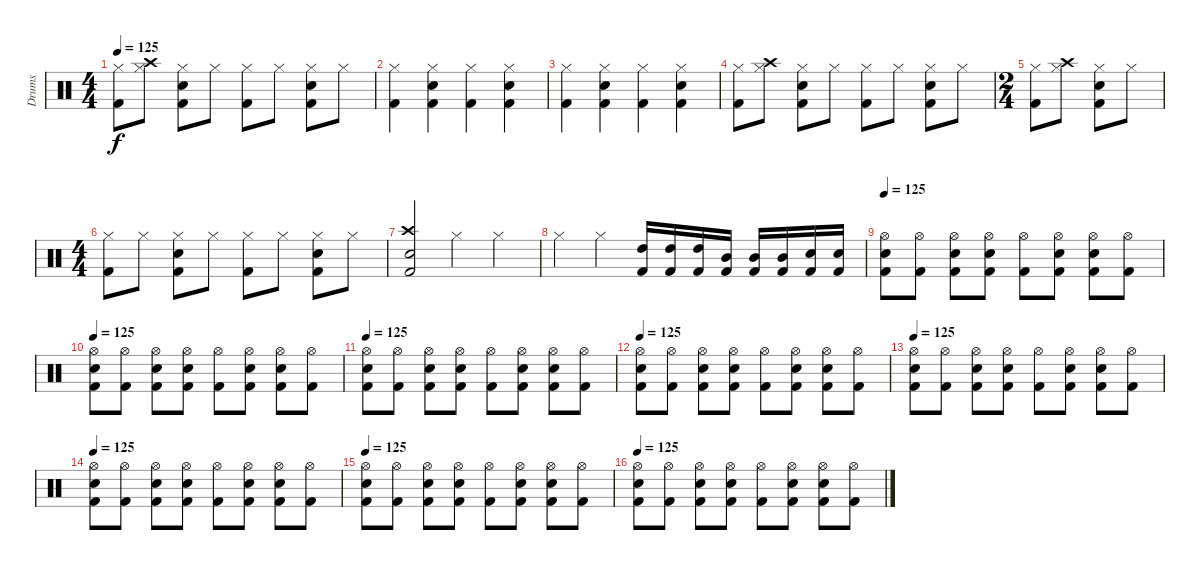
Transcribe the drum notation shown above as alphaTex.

\track ("Drums" "Drums") {instrument percussion}
\staff {score}
\articulation defaults
\ts (4 4)
\tempo 125
\clef neutral
\ks c
("Hi-Hat (closed)" "Kick (hit) 2").8{dy f} ("Hi-Hat (closed)" "Crash high (hit)").8 ("Hi-Hat (closed)" "Electric Snare (hit)" "Kick (hit) 2").8 "Hi-Hat (closed)".8 ("Hi-Hat (closed)" "Kick (hit) 2").8 "Hi-Hat (closed)".8 ("Hi-Hat (closed)" "Electric Snare (hit)" "Kick (hit) 2").8 "Hi-Hat (closed)".8 |
("Kick (hit) 2" "Hi-Hat (closed)").4 ("Kick (hit) 2" "Electric Snare (hit)" "Hi-Hat (closed)").4 ("Kick (hit) 2" "Hi-Hat (closed)").4 ("Kick (hit) 2" "Electric Snare (hit)" "Hi-Hat (closed)").4 |
("Kick (hit) 2" "Hi-Hat (closed)").4 ("Kick (hit) 2" "Electric Snare (hit)" "Hi-Hat (closed)").4 ("Kick (hit) 2" "Hi-Hat (closed)").4 ("Kick (hit) 2" "Electric Snare (hit)" "Hi-Hat (closed)").4 |
("Hi-Hat (closed)" "Kick (hit) 2").8 ("Hi-Hat (closed)" "Crash high (hit)").8 ("Hi-Hat (closed)" "Electric Snare (hit)" "Kick (hit) 2").8 "Hi-Hat (closed)".8 ("Hi-Hat (closed)" "Kick (hit) 2").8 "Hi-Hat (closed)".8 ("Hi-Hat (closed)" "Electric Snare (hit)" "Kick (hit) 2").8 "Hi-Hat (closed)".8 |
\ts (2 4)
("Hi-Hat (closed)" "Kick (hit) 2").8 ("Hi-Hat (closed)" "Crash high (hit)").8 ("Hi-Hat (closed)" "Electric Snare (hit)" "Kick (hit) 2").8 "Hi-Hat (closed)".8 |
\ts (4 4)
("Hi-Hat (closed)" "Kick (hit) 2").8 "Hi-Hat (closed)".8 ("Hi-Hat (closed)" "Electric Snare (hit)" "Kick (hit) 2").8 "Hi-Hat (closed)".8 ("Hi-Hat (closed)" "Kick (hit) 2").8 "Hi-Hat (closed)".8 ("Hi-Hat (closed)" "Electric Snare (hit)" "Kick (hit) 2").8 "Hi-Hat (closed)".8 |
("Crash high (hit)" "Kick (hit) 2" "Electric Snare (hit)").2 "Hi-Hat (closed)".4 "Hi-Hat (closed)".4 |
"Hi-Hat (closed)".4 "Hi-Hat (closed)".4 ("High Tom (hit)" "Kick (hit) 2").16 ("High Tom (hit)" "Kick (hit) 2").16 ("High Tom (hit)" "Kick (hit) 2").16 ("Mid Tom (hit)" "Kick (hit) 2").16 ("Mid Tom (hit)" "Kick (hit) 2").16 ("Mid Tom (hit)" "Kick (hit) 2").16 ("Electric Snare (hit)" "Kick (hit) 2").16 ("Electric Snare (hit)" "Kick (hit) 2").16 |
\tempo 125
("Hi-Hat (open)" "Kick (hit) 2" "Electric Snare (hit)").8 ("Hi-Hat (open)" "Kick (hit) 2").8 ("Hi-Hat (open)" "Kick (hit) 2" "Electric Snare (hit)").8 ("Hi-Hat (open)" "Kick (hit) 2" "Electric Snare (hit)").8 ("Hi-Hat (open)" "Kick (hit) 2").8 ("Hi-Hat (open)" "Kick (hit) 2" "Electric Snare (hit)").8 ("Hi-Hat (open)" "Kick (hit) 2" "Electric Snare (hit)").8 ("Hi-Hat (open)" "Kick (hit) 2").8 |
\tempo 125
("Hi-Hat (open)" "Kick (hit) 2" "Electric Snare (hit)").8 ("Hi-Hat (open)" "Kick (hit) 2").8 ("Hi-Hat (open)" "Kick (hit) 2" "Electric Snare (hit)").8 ("Hi-Hat (open)" "Kick (hit) 2" "Electric Snare (hit)").8 ("Hi-Hat (open)" "Kick (hit) 2").8 ("Hi-Hat (open)" "Kick (hit) 2" "Electric Snare (hit)").8 ("Hi-Hat (open)" "Kick (hit) 2" "Electric Snare (hit)").8 ("Hi-Hat (open)" "Kick (hit) 2").8 |
\tempo 125
("Hi-Hat (open)" "Kick (hit) 2" "Electric Snare (hit)").8 ("Hi-Hat (open)" "Kick (hit) 2").8 ("Hi-Hat (open)" "Kick (hit) 2" "Electric Snare (hit)").8 ("Hi-Hat (open)" "Kick (hit) 2" "Electric Snare (hit)").8 ("Hi-Hat (open)" "Kick (hit) 2").8 ("Hi-Hat (open)" "Kick (hit) 2" "Electric Snare (hit)").8 ("Hi-Hat (open)" "Kick (hit) 2" "Electric Snare (hit)").8 ("Hi-Hat (open)" "Kick (hit) 2").8 |
\tempo 125
("Hi-Hat (open)" "Kick (hit) 2" "Electric Snare (hit)").8 ("Hi-Hat (open)" "Kick (hit) 2").8 ("Hi-Hat (open)" "Kick (hit) 2" "Electric Snare (hit)").8 ("Hi-Hat (open)" "Kick (hit) 2" "Electric Snare (hit)").8 ("Hi-Hat (open)" "Kick (hit) 2").8 ("Hi-Hat (open)" "Kick (hit) 2" "Electric Snare (hit)").8 ("Hi-Hat (open)" "Kick (hit) 2" "Electric Snare (hit)").8 ("Hi-Hat (open)" "Kick (hit) 2").8 |
\tempo 125
("Hi-Hat (open)" "Kick (hit) 2" "Electric Snare (hit)").8 ("Hi-Hat (open)" "Kick (hit) 2").8 ("Hi-Hat (open)" "Kick (hit) 2" "Electric Snare (hit)").8 ("Hi-Hat (open)" "Kick (hit) 2" "Electric Snare (hit)").8 ("Hi-Hat (open)" "Kick (hit) 2").8 ("Hi-Hat (open)" "Kick (hit) 2" "Electric Snare (hit)").8 ("Hi-Hat (open)" "Kick (hit) 2" "Electric Snare (hit)").8 ("Hi-Hat (open)" "Kick (hit) 2").8 |
\tempo 125
("Hi-Hat (open)" "Kick (hit) 2" "Electric Snare (hit)").8 ("Hi-Hat (open)" "Kick (hit) 2").8 ("Hi-Hat (open)" "Kick (hit) 2" "Electric Snare (hit)").8 ("Hi-Hat (open)" "Kick (hit) 2" "Electric Snare (hit)").8 ("Hi-Hat (open)" "Kick (hit) 2").8 ("Hi-Hat (open)" "Kick (hit) 2" "Electric Snare (hit)").8 ("Hi-Hat (open)" "Kick (hit) 2" "Electric Snare (hit)").8 ("Hi-Hat (open)" "Kick (hit) 2").8 |
\tempo 125
("Hi-Hat (open)" "Kick (hit) 2" "Electric Snare (hit)").8 ("Hi-Hat (open)" "Kick (hit) 2").8 ("Hi-Hat (open)" "Kick (hit) 2" "Electric Snare (hit)").8 ("Hi-Hat (open)" "Kick (hit) 2" "Electric Snare (hit)").8 ("Hi-Hat (open)" "Kick (hit) 2").8 ("Hi-Hat (open)" "Kick (hit) 2" "Electric Snare (hit)").8 ("Hi-Hat (open)" "Kick (hit) 2" "Electric Snare (hit)").8 ("Hi-Hat (open)" "Kick (hit) 2").8 |
\tempo 125
("Hi-Hat (open)" "Kick (hit) 2" "Electric Snare (hit)").8 ("Hi-Hat (open)" "Kick (hit) 2").8 ("Hi-Hat (open)" "Kick (hit) 2" "Electric Snare (hit)").8 ("Hi-Hat (open)" "Kick (hit) 2" "Electric Snare (hit)").8 ("Hi-Hat (open)" "Kick (hit) 2").8 ("Hi-Hat (open)" "Kick (hit) 2" "Electric Snare (hit)").8 ("Hi-Hat (open)" "Kick (hit) 2" "Electric Snare (hit)").8 ("Hi-Hat (open)" "Kick (hit) 2").8
